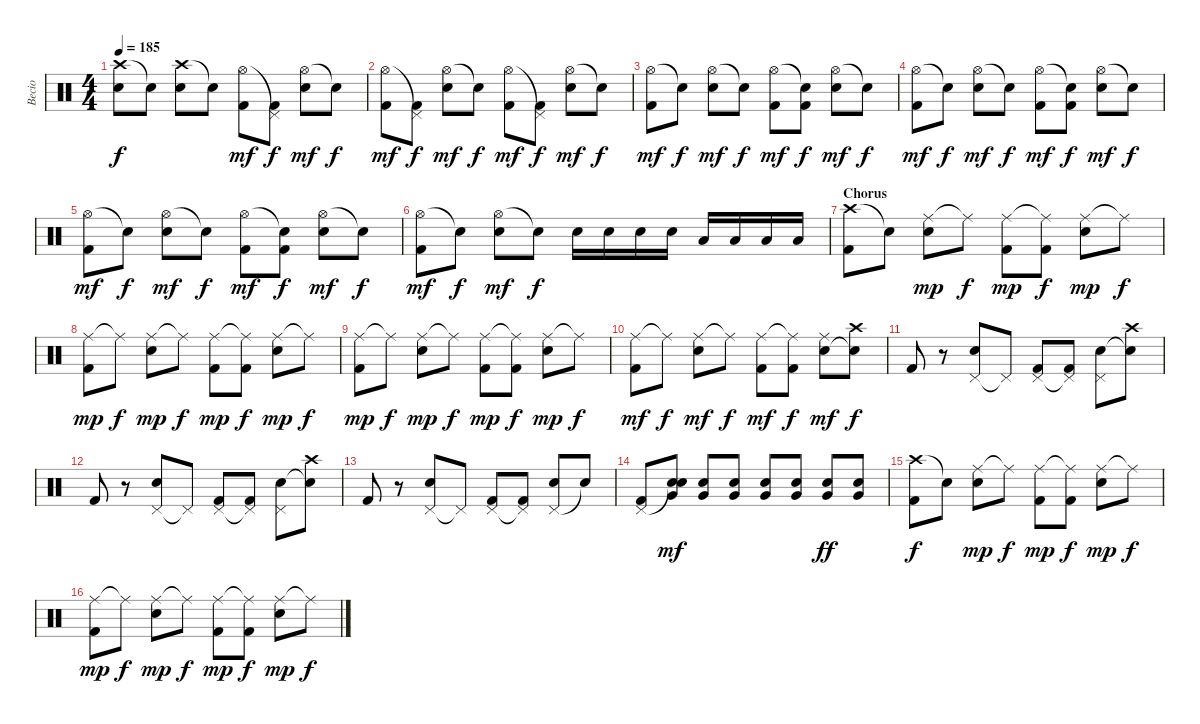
\track ("Becio" "Becio") {instrument percussion}
\staff {score}
\articulation defaults
\ts (4 4)
\tempo 185
\clef neutral
\ks c
("Crash high (hit)" "Electric Snare (hit)").8{dy f} "Snare (hit)"{t}.8 ("Crash high (hit)" "Electric Snare (hit)").8 "Snare (hit)"{t}.8 ("Hi-Hat (open)" "Kick (hit) 2").8{dy mf} ("Pedal Hi-Hat (hit)"{t} "Kick (hit) 2").8{dy f} ("Hi-Hat (open)" "Electric Snare (hit)").8{dy mf} "Snare (hit)"{t}.8{dy f} |
("Hi-Hat (open)" "Kick (hit) 2").8{dy mf} ("Pedal Hi-Hat (hit)"{t} "Kick (hit) 2").8{dy f} ("Hi-Hat (open)" "Electric Snare (hit)").8{dy mf} "Snare (hit)"{t}.8{dy f} ("Hi-Hat (open)" "Kick (hit) 2").8{dy mf} ("Pedal Hi-Hat (hit)"{t} "Kick (hit) 2").8{dy f} ("Hi-Hat (open)" "Electric Snare (hit)").8{dy mf} "Snare (hit)"{t}.8{dy f} |
("Hi-Hat (open)" "Kick (hit) 2").8{dy mf} "Snare (hit)"{t}.8{dy f} ("Hi-Hat (open)" "Electric Snare (hit)").8{dy mf} "Snare (hit)"{t}.8{dy f} ("Hi-Hat (open)" "Kick (hit) 2").8{dy mf} ("Snare (hit)"{t} "Kick (hit) 2").8{dy f} ("Hi-Hat (open)" "Electric Snare (hit)").8{dy mf} "Snare (hit)"{t}.8{dy f} |
("Hi-Hat (open)" "Kick (hit) 2").8{dy mf} "Snare (hit)"{t}.8{dy f} ("Hi-Hat (open)" "Electric Snare (hit)").8{dy mf} "Snare (hit)"{t}.8{dy f} ("Hi-Hat (open)" "Kick (hit) 2").8{dy mf} ("Snare (hit)"{t} "Kick (hit) 2").8{dy f} ("Hi-Hat (open)" "Electric Snare (hit)").8{dy mf} "Snare (hit)"{t}.8{dy f} |
("Hi-Hat (open)" "Kick (hit) 2").8{dy mf} "Snare (hit)"{t}.8{dy f} ("Hi-Hat (open)" "Electric Snare (hit)").8{dy mf} "Snare (hit)"{t}.8{dy f} ("Hi-Hat (open)" "Kick (hit) 2").8{dy mf} ("Snare (hit)"{t} "Kick (hit) 2").8{dy f} ("Hi-Hat (open)" "Electric Snare (hit)").8{dy mf} "Snare (hit)"{t}.8{dy f} |
("Hi-Hat (open)" "Kick (hit) 2").8{dy mf} "Snare (hit)"{t}.8{dy f} ("Hi-Hat (open)" "Electric Snare (hit)").8{dy mf} "Snare (hit)"{t}.8{dy f} "Electric Snare (hit)".16 "Electric Snare (hit)".16 "Electric Snare (hit)".16 "Electric Snare (hit)".16 "Low Tom (hit)".16 "Low Tom (hit)".16 "Low Tom (hit)".16 "Low Tom (hit)".16 |
\section ("" "Chorus")
("Crash high (hit)" "Kick (hit) 2").8 "Snare (hit)"{t}.8 ("Ride (middle)" "Electric Snare (hit)").8{dy mp} "Ride (middle)"{t}.8{dy f} ("Ride (middle)" "Kick (hit) 2").8{dy mp} ("Ride (middle)"{t} "Kick (hit) 2").8{dy f} ("Ride (middle)" "Electric Snare (hit)").8{dy mp} "Ride (middle)"{t}.8{dy f} |
("Ride (middle)" "Kick (hit) 2").8{dy mp} "Ride (middle)"{t}.8{dy f} ("Ride (middle)" "Electric Snare (hit)").8{dy mp} "Ride (middle)"{t}.8{dy f} ("Ride (middle)" "Kick (hit) 2").8{dy mp} ("Ride (middle)"{t} "Kick (hit) 2").8{dy f} ("Ride (middle)" "Electric Snare (hit)").8{dy mp} "Ride (middle)"{t}.8{dy f} |
("Ride (middle)" "Kick (hit) 2").8{dy mp} "Ride (middle)"{t}.8{dy f} ("Ride (middle)" "Electric Snare (hit)").8{dy mp} "Ride (middle)"{t}.8{dy f} ("Ride (middle)" "Kick (hit) 2").8{dy mp} ("Ride (middle)"{t} "Kick (hit) 2").8{dy f} ("Ride (middle)" "Electric Snare (hit)").8{dy mp} "Ride (middle)"{t}.8{dy f} |
("Ride (middle)" "Kick (hit) 2").8{dy mf} "Ride (middle)"{t}.8{dy f} ("Ride (middle)" "Electric Snare (hit)").8{dy mf} "Ride (middle)"{t}.8{dy f} ("Ride (middle)" "Kick (hit) 2").8{dy mf} ("Ride (middle)"{t} "Kick (hit) 2").8{dy f} ("Ride (middle)" "Electric Snare (hit)").8{dy mf} ("Crash high (hit)" "Snare (hit)"{t}).8{dy f} |
"Kick (hit) 2".8 r.8 ("Pedal Hi-Hat (hit)" "Electric Snare (hit)").8 "Pedal Hi-Hat (hit)"{t}.8 ("Pedal Hi-Hat (hit)" "Kick (hit) 2").8 ("Pedal Hi-Hat (hit)"{t} "Kick (hit) 2").8 ("Pedal Hi-Hat (hit)" "Electric Snare (hit)").8 ("Crash high (hit)" "Snare (hit)"{t}).8 |
"Kick (hit) 2".8 r.8 ("Pedal Hi-Hat (hit)" "Electric Snare (hit)").8 "Pedal Hi-Hat (hit)"{t}.8 ("Pedal Hi-Hat (hit)" "Kick (hit) 2").8 ("Pedal Hi-Hat (hit)"{t} "Kick (hit) 2").8 ("Pedal Hi-Hat (hit)" "Electric Snare (hit)").8 ("Crash high (hit)" "Snare (hit)"{t}).8 |
"Kick (hit) 2".8 r.8 ("Pedal Hi-Hat (hit)" "Electric Snare (hit)").8 "Pedal Hi-Hat (hit)"{t}.8 ("Pedal Hi-Hat (hit)" "Kick (hit) 2").8 ("Pedal Hi-Hat (hit)"{t} "Kick (hit) 2").8 ("Pedal Hi-Hat (hit)" "Electric Snare (hit)").8 "Snare (hit)"{t}.8 |
("Pedal Hi-Hat (hit)" "Kick (hit) 2").8 ("Snare (hit)"{t} "Electric Snare (hit)" "Very Low Tom (hit)").8{dy mf} ("Electric Snare (hit)" "Very Low Tom (hit)").8 ("Electric Snare (hit)" "Very Low Tom (hit)").8 ("Electric Snare (hit)" "Very Low Tom (hit)").8 ("Electric Snare (hit)" "Very Low Tom (hit)").8 ("Electric Snare (hit)" "Very Low Tom (hit)").8{dy ff} ("Electric Snare (hit)" "Very Low Tom (hit)").8 |
("Crash high (hit)" "Kick (hit) 2").8{dy f} "Snare (hit)"{t}.8 ("Ride (middle)" "Electric Snare (hit)").8{dy mp} "Ride (middle)"{t}.8{dy f} ("Ride (middle)" "Kick (hit) 2").8{dy mp} ("Ride (middle)"{t} "Kick (hit) 2").8{dy f} ("Ride (middle)" "Electric Snare (hit)").8{dy mp} "Ride (middle)"{t}.8{dy f} |
("Ride (middle)" "Kick (hit) 2").8{dy mp} "Ride (middle)"{t}.8{dy f} ("Ride (middle)" "Electric Snare (hit)").8{dy mp} "Ride (middle)"{t}.8{dy f} ("Ride (middle)" "Kick (hit) 2").8{dy mp} ("Ride (middle)"{t} "Kick (hit) 2").8{dy f} ("Ride (middle)" "Electric Snare (hit)").8{dy mp} "Ride (middle)"{t}.8{dy f}
